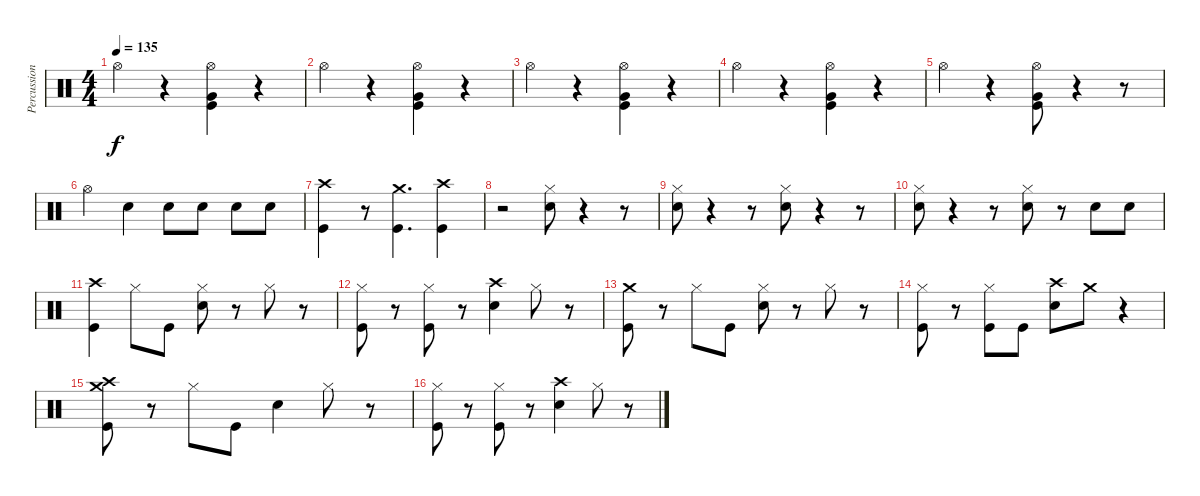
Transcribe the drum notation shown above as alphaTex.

\track ("Percussions" "Percussion") {instrument percussion}
\staff {score}
\articulation defaults
\ts (4 4)
\tempo 135
\clef neutral
\ks c "Hi-Hat (open)".4{dy f}
r.4 ("Hi-Hat (open)" "Very Low Tom (hit)" "Kick (hit)").4 r.4 |
"Hi-Hat (open)".4 r.4 ("Hi-Hat (open)" "Very Low Tom (hit)" "Kick (hit)").4 r.4 |
"Hi-Hat (open)".4 r.4 ("Hi-Hat (open)" "Very Low Tom (hit)" "Kick (hit)").4 r.4 |
"Hi-Hat (open)".4 r.4 ("Hi-Hat (open)" "Very Low Tom (hit)" "Kick (hit)").4 r.4 |
"Hi-Hat (open)".4 r.4 ("Hi-Hat (open)" "Very Low Tom (hit)" "Kick (hit)").8 r.4 r.8 |
"Hi-Hat (open)".4 "Snare (hit) 2".4 "Snare (hit) 2".8 "Snare (hit) 2".8 "Snare (hit) 2".8 "Snare (hit) 2".8 |
("Crash high (hit)" "Kick (hit)").4 r.8 ("Crash medium (hit)" "Kick (hit)").4{d} ("Crash high (hit)" "Kick (hit)").4 |
r.2 ("Snare (hit) 2" "Hi-Hat (closed)").8 r.4 r.8 |
("Snare (hit) 2" "Hi-Hat (closed)").8 r.4 r.8 ("Snare (hit) 2" "Hi-Hat (closed)").8 r.4 r.8 |
("Snare (hit) 2" "Hi-Hat (closed)").8 r.4 r.8 ("Snare (hit) 2" "Hi-Hat (closed)").8 r.8 "Snare (hit) 2".8 "Snare (hit) 2".8 |
("Kick (hit)" "Crash high (hit)").4 "Hi-Hat (closed)".8 "Kick (hit)".8 ("Hi-Hat (closed)" "Snare (hit) 2").8 r.8 "Hi-Hat (closed)".8 r.8 |
("Hi-Hat (closed)" "Kick (hit)").8 r.8 ("Hi-Hat (closed)" "Kick (hit)").8 r.8 ("Crash high (hit)" "Snare (hit) 2").4 "Hi-Hat (closed)".8 r.8 |
("Crash medium (hit)" "Kick (hit)").8 r.8 "Hi-Hat (closed)".8 "Kick (hit)".8 ("Hi-Hat (closed)" "Snare (hit) 2").8 r.8 "Hi-Hat (closed)".8 r.8 |
("Hi-Hat (closed)" "Kick (hit)").8 r.8 ("Hi-Hat (closed)" "Kick (hit)").8 "Kick (hit)".8 ("Crash high (hit)" "Snare (hit) 2").8 "Crash medium (hit)".8 r.4 |
("Crash medium (hit)" "Kick (hit)" "Crash high (hit)").8 r.8 "Hi-Hat (closed)".8 "Kick (hit)".8 "Snare (hit) 2".4 "Hi-Hat (closed)".8 r.8 |
("Hi-Hat (closed)" "Kick (hit)").8 r.8 ("Hi-Hat (closed)" "Kick (hit)").8 r.8 ("Crash high (hit)" "Snare (hit) 2").4 "Hi-Hat (closed)".8 r.8
